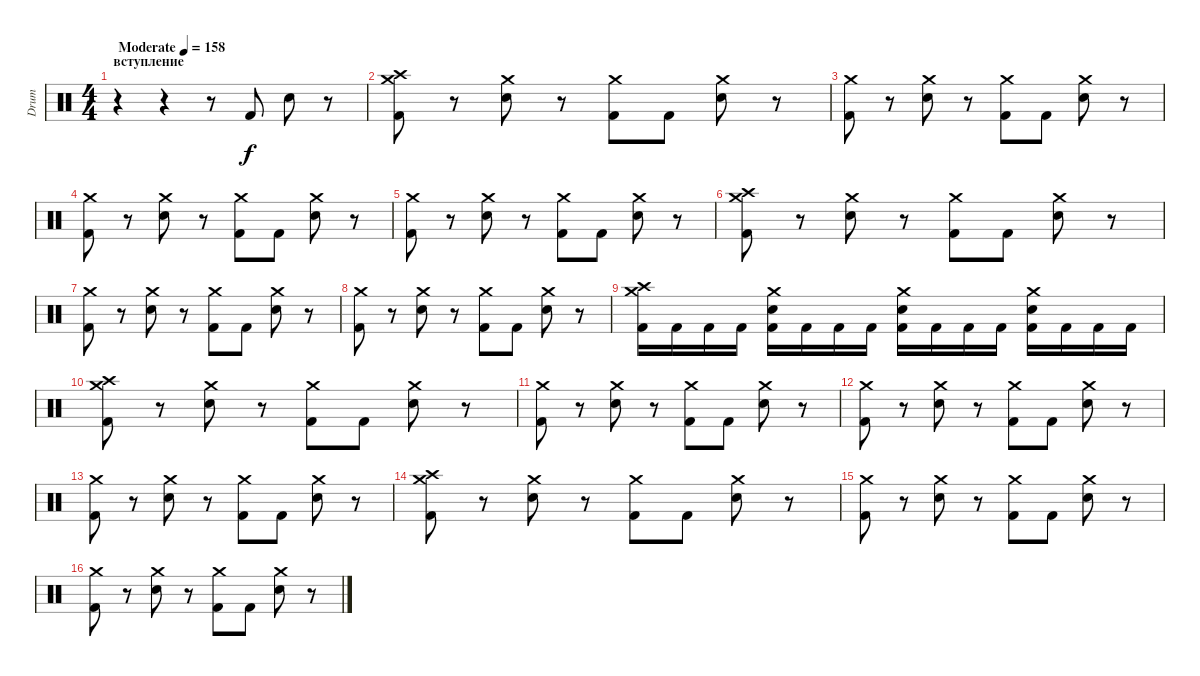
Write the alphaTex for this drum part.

\track ("Drum" "Drum") {instrument percussion}
\staff {score}
\articulation defaults
\ts (4 4)
\section ("" "вступление")
\tempo (158 "Moderate")
\clef neutral
\ks c
r.4{dy f} r.4 r.8 "Kick (hit) 2".8 "Snare (hit) 2".8 r.8 |
("Crash high (hit)" "Crash medium (hit)" "Kick (hit) 2").8 r.8 ("Crash medium (hit)" "Snare (hit) 2").8 r.8 ("Crash medium (hit)" "Kick (hit) 2").8 "Kick (hit) 2".8 ("Crash medium (hit)" "Snare (hit) 2").8 r.8 |
("Crash medium (hit)" "Kick (hit) 2").8 r.8 ("Crash medium (hit)" "Snare (hit) 2").8 r.8 ("Crash medium (hit)" "Kick (hit) 2").8 "Kick (hit) 2".8 ("Crash medium (hit)" "Snare (hit) 2").8 r.8 |
("Crash medium (hit)" "Kick (hit) 2").8 r.8 ("Crash medium (hit)" "Snare (hit) 2").8 r.8 ("Crash medium (hit)" "Kick (hit) 2").8 "Kick (hit) 2".8 ("Crash medium (hit)" "Snare (hit) 2").8 r.8 |
("Crash medium (hit)" "Kick (hit) 2").8 r.8 ("Crash medium (hit)" "Snare (hit) 2").8 r.8 ("Crash medium (hit)" "Kick (hit) 2").8 "Kick (hit) 2".8 ("Crash medium (hit)" "Snare (hit) 2").8 r.8 |
("Crash high (hit)" "Crash medium (hit)" "Kick (hit) 2").8 r.8 ("Crash medium (hit)" "Snare (hit) 2").8 r.8 ("Crash medium (hit)" "Kick (hit) 2").8 "Kick (hit) 2".8 ("Crash medium (hit)" "Snare (hit) 2").8 r.8 |
("Crash medium (hit)" "Kick (hit) 2").8 r.8 ("Crash medium (hit)" "Snare (hit) 2").8 r.8 ("Crash medium (hit)" "Kick (hit) 2").8 "Kick (hit) 2".8 ("Crash medium (hit)" "Snare (hit) 2").8 r.8 |
("Crash medium (hit)" "Kick (hit) 2").8 r.8 ("Crash medium (hit)" "Snare (hit) 2").8 r.8 ("Crash medium (hit)" "Kick (hit) 2").8 "Kick (hit) 2".8 ("Crash medium (hit)" "Snare (hit) 2").8 r.8 |
("Crash high (hit)" "Crash medium (hit)" "Kick (hit) 2").16 "Kick (hit) 2".16 "Kick (hit) 2".16 "Kick (hit) 2".16 ("Crash medium (hit)" "Snare (hit) 2" "Kick (hit) 2").16 "Kick (hit) 2".16 "Kick (hit) 2".16 "Kick (hit) 2".16 ("Crash medium (hit)" "Snare (hit) 2" "Kick (hit) 2").16 "Kick (hit) 2".16 "Kick (hit) 2".16 "Kick (hit) 2".16 ("Crash medium (hit)" "Snare (hit) 2" "Kick (hit) 2").16 "Kick (hit) 2".16 "Kick (hit) 2".16 "Kick (hit) 2".16 |
("Crash high (hit)" "Crash medium (hit)" "Kick (hit) 2").8 r.8 ("Crash medium (hit)" "Snare (hit) 2").8 r.8 ("Crash medium (hit)" "Kick (hit) 2").8 "Kick (hit) 2".8 ("Crash medium (hit)" "Snare (hit) 2").8 r.8 |
("Crash medium (hit)" "Kick (hit) 2").8 r.8 ("Crash medium (hit)" "Snare (hit) 2").8 r.8 ("Crash medium (hit)" "Kick (hit) 2").8 "Kick (hit) 2".8 ("Crash medium (hit)" "Snare (hit) 2").8 r.8 |
("Crash medium (hit)" "Kick (hit) 2").8 r.8 ("Crash medium (hit)" "Snare (hit) 2").8 r.8 ("Crash medium (hit)" "Kick (hit) 2").8 "Kick (hit) 2".8 ("Crash medium (hit)" "Snare (hit) 2").8 r.8 |
("Crash medium (hit)" "Kick (hit) 2").8 r.8 ("Crash medium (hit)" "Snare (hit) 2").8 r.8 ("Crash medium (hit)" "Kick (hit) 2").8 "Kick (hit) 2".8 ("Crash medium (hit)" "Snare (hit) 2").8 r.8 |
("Crash high (hit)" "Crash medium (hit)" "Kick (hit) 2").8 r.8 ("Crash medium (hit)" "Snare (hit) 2").8 r.8 ("Crash medium (hit)" "Kick (hit) 2").8 "Kick (hit) 2".8 ("Crash medium (hit)" "Snare (hit) 2").8 r.8 |
("Crash medium (hit)" "Kick (hit) 2").8 r.8 ("Crash medium (hit)" "Snare (hit) 2").8 r.8 ("Crash medium (hit)" "Kick (hit) 2").8 "Kick (hit) 2".8 ("Crash medium (hit)" "Snare (hit) 2").8 r.8 |
("Crash medium (hit)" "Kick (hit) 2").8 r.8 ("Crash medium (hit)" "Snare (hit) 2").8 r.8 ("Crash medium (hit)" "Kick (hit) 2").8 "Kick (hit) 2".8 ("Crash medium (hit)" "Snare (hit) 2").8 r.8
